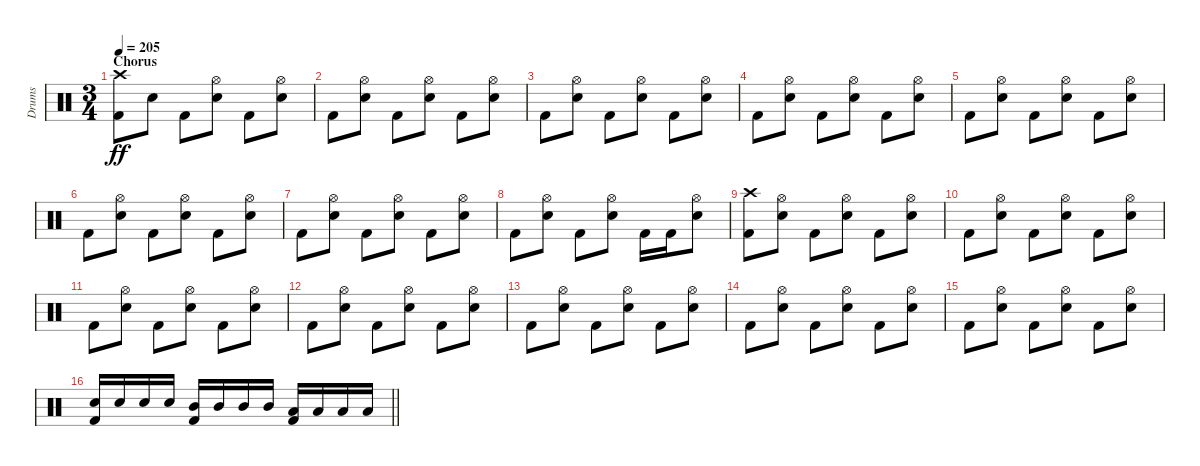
\track ("Drums" "Drums") {instrument percussion}
\staff {score}
\articulation defaults
\ts (3 4)
\section ("" "Chorus")
\tempo 205
\clef neutral
\ks c
("Crash high (hit)" "Kick (hit) 2").8{dy ff} "Snare (hit) 2".8 "Kick (hit) 2".8 ("Hi-Hat (open)" "Snare (hit) 2").8 "Kick (hit) 2".8 ("Hi-Hat (open)" "Snare (hit) 2").8 |
"Kick (hit) 2".8 ("Hi-Hat (open)" "Snare (hit) 2").8 "Kick (hit) 2".8 ("Hi-Hat (open)" "Snare (hit) 2").8 "Kick (hit) 2".8 ("Hi-Hat (open)" "Snare (hit) 2").8 |
"Kick (hit) 2".8 ("Hi-Hat (open)" "Snare (hit) 2").8 "Kick (hit) 2".8 ("Hi-Hat (open)" "Snare (hit) 2").8 "Kick (hit) 2".8 ("Hi-Hat (open)" "Snare (hit) 2").8 |
"Kick (hit) 2".8 ("Hi-Hat (open)" "Snare (hit) 2").8 "Kick (hit) 2".8 ("Hi-Hat (open)" "Snare (hit) 2").8 "Kick (hit) 2".8 ("Hi-Hat (open)" "Snare (hit) 2").8 |
"Kick (hit) 2".8 ("Hi-Hat (open)" "Snare (hit) 2").8 "Kick (hit) 2".8 ("Hi-Hat (open)" "Snare (hit) 2").8 "Kick (hit) 2".8 ("Hi-Hat (open)" "Snare (hit) 2").8 |
"Kick (hit) 2".8 ("Hi-Hat (open)" "Snare (hit) 2").8 "Kick (hit) 2".8 ("Hi-Hat (open)" "Snare (hit) 2").8 "Kick (hit) 2".8 ("Hi-Hat (open)" "Snare (hit) 2").8 |
"Kick (hit) 2".8 ("Hi-Hat (open)" "Snare (hit) 2").8 "Kick (hit) 2".8 ("Hi-Hat (open)" "Snare (hit) 2").8 "Kick (hit) 2".8 ("Hi-Hat (open)" "Snare (hit) 2").8 |
"Kick (hit) 2".8 ("Hi-Hat (open)" "Snare (hit) 2").8 "Kick (hit) 2".8 ("Hi-Hat (open)" "Snare (hit) 2").8 "Kick (hit) 2".16 "Kick (hit) 2".16 ("Hi-Hat (open)" "Snare (hit) 2").8 |
("Crash high (hit)" "Kick (hit) 2").8 ("Hi-Hat (open)" "Snare (hit) 2").8 "Kick (hit) 2".8 ("Hi-Hat (open)" "Snare (hit) 2").8 "Kick (hit) 2".8 ("Hi-Hat (open)" "Snare (hit) 2").8 |
"Kick (hit) 2".8 ("Hi-Hat (open)" "Snare (hit) 2").8 "Kick (hit) 2".8 ("Hi-Hat (open)" "Snare (hit) 2").8 "Kick (hit) 2".8 ("Hi-Hat (open)" "Snare (hit) 2").8 |
"Kick (hit) 2".8 ("Hi-Hat (open)" "Snare (hit) 2").8 "Kick (hit) 2".8 ("Hi-Hat (open)" "Snare (hit) 2").8 "Kick (hit) 2".8 ("Hi-Hat (open)" "Snare (hit) 2").8 |
"Kick (hit) 2".8 ("Hi-Hat (open)" "Snare (hit) 2").8 "Kick (hit) 2".8 ("Hi-Hat (open)" "Snare (hit) 2").8 "Kick (hit) 2".8 ("Hi-Hat (open)" "Snare (hit) 2").8 |
"Kick (hit) 2".8 ("Hi-Hat (open)" "Snare (hit) 2").8 "Kick (hit) 2".8 ("Hi-Hat (open)" "Snare (hit) 2").8 "Kick (hit) 2".8 ("Hi-Hat (open)" "Snare (hit) 2").8 |
"Kick (hit) 2".8 ("Hi-Hat (open)" "Snare (hit) 2").8 "Kick (hit) 2".8 ("Hi-Hat (open)" "Snare (hit) 2").8 "Kick (hit) 2".8 ("Hi-Hat (open)" "Snare (hit) 2").8 |
"Kick (hit) 2".8 ("Hi-Hat (open)" "Snare (hit) 2").8 "Kick (hit) 2".8 ("Hi-Hat (open)" "Snare (hit) 2").8 "Kick (hit) 2".8 ("Hi-Hat (open)" "Snare (hit) 2").8 |
\barLineRight lightlight
("Snare (hit) 2" "Kick (hit) 2").16 "Snare (hit) 2".16 "Snare (hit) 2".16 "Snare (hit) 2".16 ("Mid Tom (hit)" "Kick (hit) 2").16 "Mid Tom (hit)".16 "Mid Tom (hit)".16 "Mid Tom (hit)".16 ("Low Tom (hit)" "Kick (hit) 2").16 "Low Tom (hit)".16 "Low Tom (hit)".16 "Low Tom (hit)".16
